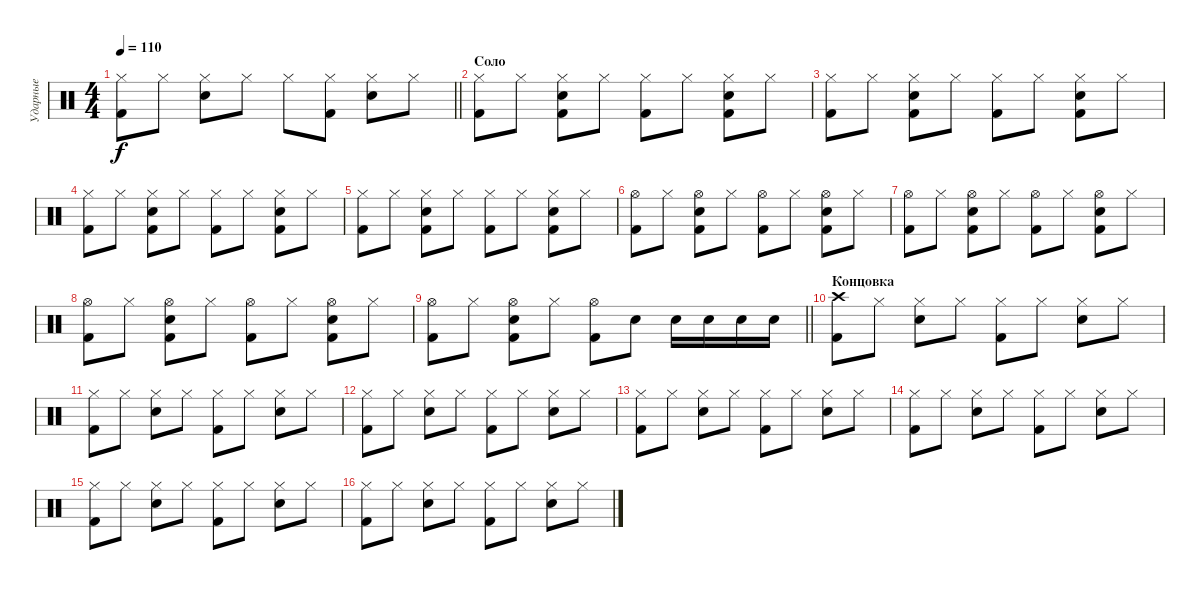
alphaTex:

\track ("Ударные" "Ударные") {instrument percussion}
\staff {score}
\articulation defaults
\ts (4 4)
\tempo 110
\clef neutral
\barLineRight lightlight
\ks c
("Kick (hit) 2" "Hi-Hat (closed)").8{dy f} "Hi-Hat (closed)".8 ("Snare (hit) 2" "Hi-Hat (closed)").8 "Hi-Hat (closed)".8 "Hi-Hat (closed)".8 ("Kick (hit) 2" "Hi-Hat (closed)").8 ("Snare (hit) 2" "Hi-Hat (closed)").8 "Hi-Hat (closed)".8 |
\section ("" "Соло")
("Kick (hit) 2" "Hi-Hat (closed)").8 "Hi-Hat (closed)".8 ("Kick (hit) 2" "Hi-Hat (closed)" "Hand Clap (hit)").8 "Hi-Hat (closed)".8 ("Kick (hit) 2" "Hi-Hat (closed)").8 "Hi-Hat (closed)".8 ("Kick (hit) 2" "Hi-Hat (closed)" "Hand Clap (hit)").8 "Hi-Hat (closed)".8 |
("Kick (hit) 2" "Hi-Hat (closed)").8 "Hi-Hat (closed)".8 ("Kick (hit) 2" "Hi-Hat (closed)" "Hand Clap (hit)").8 "Hi-Hat (closed)".8 ("Kick (hit) 2" "Hi-Hat (closed)").8 "Hi-Hat (closed)".8 ("Kick (hit) 2" "Hi-Hat (closed)" "Hand Clap (hit)").8 "Hi-Hat (closed)".8 |
("Kick (hit) 2" "Hi-Hat (closed)").8 "Hi-Hat (closed)".8 ("Kick (hit) 2" "Hi-Hat (closed)" "Hand Clap (hit)").8 "Hi-Hat (closed)".8 ("Kick (hit) 2" "Hi-Hat (closed)").8 "Hi-Hat (closed)".8 ("Kick (hit) 2" "Hi-Hat (closed)" "Hand Clap (hit)").8 "Hi-Hat (closed)".8 |
("Kick (hit) 2" "Hi-Hat (closed)").8 "Hi-Hat (closed)".8 ("Kick (hit) 2" "Hi-Hat (closed)" "Hand Clap (hit)").8 "Hi-Hat (closed)".8 ("Kick (hit) 2" "Hi-Hat (closed)").8 "Hi-Hat (closed)".8 ("Kick (hit) 2" "Hi-Hat (closed)" "Hand Clap (hit)").8 "Hi-Hat (closed)".8 |
("Kick (hit) 2" "Hi-Hat (open)").8 "Hi-Hat (closed)".8 ("Kick (hit) 2" "Hi-Hat (open)" "Hand Clap (hit)").8 "Hi-Hat (closed)".8 ("Kick (hit) 2" "Hi-Hat (open)").8 "Hi-Hat (closed)".8 ("Kick (hit) 2" "Hi-Hat (open)" "Hand Clap (hit)").8 "Hi-Hat (closed)".8 |
("Kick (hit) 2" "Hi-Hat (open)").8 "Hi-Hat (closed)".8 ("Kick (hit) 2" "Hi-Hat (open)" "Hand Clap (hit)").8 "Hi-Hat (closed)".8 ("Kick (hit) 2" "Hi-Hat (open)").8 "Hi-Hat (closed)".8 ("Kick (hit) 2" "Hi-Hat (open)" "Hand Clap (hit)").8 "Hi-Hat (closed)".8 |
("Kick (hit) 2" "Hi-Hat (open)").8 "Hi-Hat (closed)".8 ("Kick (hit) 2" "Hi-Hat (open)" "Hand Clap (hit)").8 "Hi-Hat (closed)".8 ("Kick (hit) 2" "Hi-Hat (open)").8 "Hi-Hat (closed)".8 ("Kick (hit) 2" "Hi-Hat (open)" "Hand Clap (hit)").8 "Hi-Hat (closed)".8 |
\barLineRight lightlight
("Kick (hit) 2" "Hi-Hat (open)").8 "Hi-Hat (closed)".8 ("Kick (hit) 2" "Hi-Hat (open)" "Hand Clap (hit)").8 "Hi-Hat (closed)".8 ("Kick (hit) 2" "Hi-Hat (open)").8 "Snare (hit) 2".8 "Snare (hit) 2".16 "Snare (hit) 2".16 "Snare (hit) 2".16 "Snare (hit) 2".16 |
\section ("" "Концовка")
("Kick (hit) 2" "Crash high (hit)").8 "Hi-Hat (closed)".8 ("Snare (hit) 2" "Hi-Hat (closed)").8 "Hi-Hat (closed)".8 ("Kick (hit) 2" "Hi-Hat (closed)").8 "Hi-Hat (closed)".8 ("Snare (hit) 2" "Hi-Hat (closed)").8 "Hi-Hat (closed)".8 |
("Kick (hit) 2" "Hi-Hat (closed)").8 "Hi-Hat (closed)".8 ("Snare (hit) 2" "Hi-Hat (closed)").8 "Hi-Hat (closed)".8 ("Kick (hit) 2" "Hi-Hat (closed)").8 "Hi-Hat (closed)".8 ("Snare (hit) 2" "Hi-Hat (closed)").8 "Hi-Hat (closed)".8 |
("Kick (hit) 2" "Hi-Hat (closed)").8 "Hi-Hat (closed)".8 ("Snare (hit) 2" "Hi-Hat (closed)").8 "Hi-Hat (closed)".8 ("Kick (hit) 2" "Hi-Hat (closed)").8 "Hi-Hat (closed)".8 ("Snare (hit) 2" "Hi-Hat (closed)").8 "Hi-Hat (closed)".8 |
("Kick (hit) 2" "Hi-Hat (closed)").8 "Hi-Hat (closed)".8 ("Snare (hit) 2" "Hi-Hat (closed)").8 "Hi-Hat (closed)".8 ("Kick (hit) 2" "Hi-Hat (closed)").8 "Hi-Hat (closed)".8 ("Snare (hit) 2" "Hi-Hat (closed)").8 "Hi-Hat (closed)".8 |
("Kick (hit) 2" "Hi-Hat (closed)").8 "Hi-Hat (closed)".8 ("Snare (hit) 2" "Hi-Hat (closed)").8 "Hi-Hat (closed)".8 ("Kick (hit) 2" "Hi-Hat (closed)").8 "Hi-Hat (closed)".8 ("Snare (hit) 2" "Hi-Hat (closed)").8 "Hi-Hat (closed)".8 |
("Kick (hit) 2" "Hi-Hat (closed)").8 "Hi-Hat (closed)".8 ("Snare (hit) 2" "Hi-Hat (closed)").8 "Hi-Hat (closed)".8 ("Kick (hit) 2" "Hi-Hat (closed)").8 "Hi-Hat (closed)".8 ("Snare (hit) 2" "Hi-Hat (closed)").8 "Hi-Hat (closed)".8 |
("Kick (hit) 2" "Hi-Hat (closed)").8 "Hi-Hat (closed)".8 ("Snare (hit) 2" "Hi-Hat (closed)").8 "Hi-Hat (closed)".8 ("Kick (hit) 2" "Hi-Hat (closed)").8 "Hi-Hat (closed)".8 ("Snare (hit) 2" "Hi-Hat (closed)").8 "Hi-Hat (closed)".8
